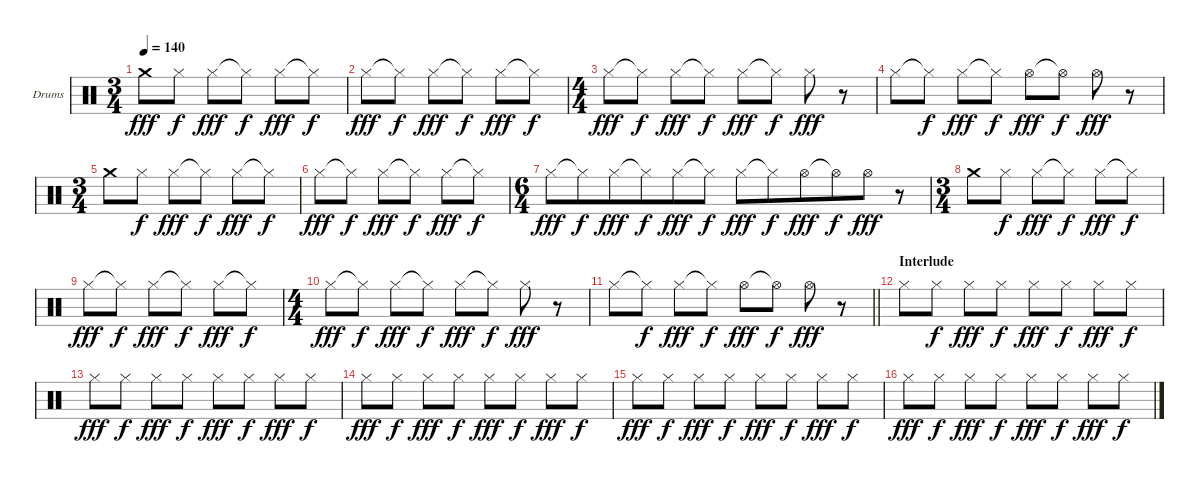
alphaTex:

\bracketExtendMode groupsimilarinstruments
\firstSystemTrackNameOrientation horizontal
\otherSystemsTrackNameOrientation horizontal
\track ("Drumkit" "Drums") {instrument percussion}
\staff {score}
\articulation defaults
\ts (3 4)
\beaming (8 2 2 2 2)
\tempo 140
\clef neutral
\ks c "Crash medium (hit)".8{dy fff} "Hi-Hat (closed)".8{dy f} "Hi-Hat (closed)".8{dy fff} "Hi-Hat (closed)"{t}.8{dy f} "Hi-Hat (closed)".8{dy fff} "Hi-Hat (closed)"{t}.8{dy f}
|
"Hi-Hat (closed)".8{dy fff} "Hi-Hat (closed)"{t}.8{dy f} "Hi-Hat (closed)".8{dy fff} "Hi-Hat (closed)"{t}.8{dy f} "Hi-Hat (closed)".8{dy fff} "Hi-Hat (closed)"{t}.8{dy f} |
\ts (4 4)
\beaming (8 2 2 2 2)
"Hi-Hat (closed)".8{dy fff} "Hi-Hat (closed)"{t}.8{dy f} "Hi-Hat (closed)".8{dy fff} "Hi-Hat (closed)"{t}.8{dy f} "Hi-Hat (closed)".8{dy fff} "Hi-Hat (closed)"{t}.8{dy f} "Hi-Hat (closed)".8{dy fff} r.8 |
"Hi-Hat (closed)".8 "Hi-Hat (closed)"{t}.8{dy f} "Hi-Hat (closed)".8{dy fff} "Hi-Hat (closed)"{t}.8{dy f} "Hi-Hat (open)".8{dy fff} "Hi-Hat (open)"{t}.8{dy f} "Hi-Hat (open)".8{dy fff} r.8 |
\ts (3 4)
\beaming (8 2 2 2 2)
"Crash medium (hit)".8 "Hi-Hat (closed)".8{dy f} "Hi-Hat (closed)".8{dy fff} "Hi-Hat (closed)"{t}.8{dy f} "Hi-Hat (closed)".8{dy fff} "Hi-Hat (closed)"{t}.8{dy f} |
\beaming (8 2 2 2)
"Hi-Hat (closed)".8{dy fff} "Hi-Hat (closed)"{t}.8{dy f} "Hi-Hat (closed)".8{dy fff} "Hi-Hat (closed)"{t}.8{dy f} "Hi-Hat (closed)".8{dy fff} "Hi-Hat (closed)"{t}.8{dy f} |
\ts (6 4)
\beaming (8 6 6)
"Hi-Hat (closed)".8{dy fff} "Hi-Hat (closed)"{t}.8{dy f} "Hi-Hat (closed)".8{dy fff} "Hi-Hat (closed)"{t}.8{dy f} "Hi-Hat (closed)".8{dy fff} "Hi-Hat (closed)"{t}.8{dy f} "Hi-Hat (closed)".8{dy fff} "Hi-Hat (closed)"{t}.8{dy f} "Hi-Hat (open)".8{dy fff} "Hi-Hat (open)"{t}.8{dy f} "Hi-Hat (open)".8{dy fff} r.8 |
\ts (3 4)
\beaming (8 2 2 2)
"Crash medium (hit)".8 "Hi-Hat (closed)".8{dy f} "Hi-Hat (closed)".8{dy fff} "Hi-Hat (closed)"{t}.8{dy f} "Hi-Hat (closed)".8{dy fff} "Hi-Hat (closed)"{t}.8{dy f} |
"Hi-Hat (closed)".8{dy fff} "Hi-Hat (closed)"{t}.8{dy f} "Hi-Hat (closed)".8{dy fff} "Hi-Hat (closed)"{t}.8{dy f} "Hi-Hat (closed)".8{dy fff} "Hi-Hat (closed)"{t}.8{dy f} |
\ts (4 4)
\beaming (8 2 2 2 2)
"Hi-Hat (closed)".8{dy fff} "Hi-Hat (closed)"{t}.8{dy f} "Hi-Hat (closed)".8{dy fff} "Hi-Hat (closed)"{t}.8{dy f} "Hi-Hat (closed)".8{dy fff} "Hi-Hat (closed)"{t}.8{dy f} "Hi-Hat (closed)".8{dy fff} r.8 |
\barLineRight lightlight "Hi-Hat (closed)".8 "Hi-Hat (closed)"{t}.8{dy f} "Hi-Hat (closed)".8{dy fff} "Hi-Hat (closed)"{t}.8{dy f} "Hi-Hat (open)".8{dy fff} "Hi-Hat (open)"{t}.8{dy f} "Hi-Hat (open)".8{dy fff}
r.8 |
\section ("" "Interlude")
"Hi-Hat (closed)".8 "Hi-Hat (closed)".8{dy f} "Hi-Hat (closed)".8{dy fff} "Hi-Hat (closed)".8{dy f} "Hi-Hat (closed)".8{dy fff} "Hi-Hat (closed)".8{dy f} "Hi-Hat (closed)".8{dy fff} "Hi-Hat (closed)".8{dy f} |
"Hi-Hat (closed)".8{dy fff} "Hi-Hat (closed)".8{dy f} "Hi-Hat (closed)".8{dy fff} "Hi-Hat (closed)".8{dy f} "Hi-Hat (closed)".8{dy fff} "Hi-Hat (closed)".8{dy f} "Hi-Hat (closed)".8{dy fff} "Hi-Hat (closed)".8{dy f} |
"Hi-Hat (closed)".8{dy fff} "Hi-Hat (closed)".8{dy f} "Hi-Hat (closed)".8{dy fff} "Hi-Hat (closed)".8{dy f} "Hi-Hat (closed)".8{dy fff} "Hi-Hat (closed)".8{dy f} "Hi-Hat (closed)".8{dy fff} "Hi-Hat (closed)".8{dy f} |
"Hi-Hat (closed)".8{dy fff} "Hi-Hat (closed)".8{dy f} "Hi-Hat (closed)".8{dy fff} "Hi-Hat (closed)".8{dy f} "Hi-Hat (closed)".8{dy fff} "Hi-Hat (closed)".8{dy f} "Hi-Hat (closed)".8{dy fff} "Hi-Hat (closed)".8{dy f} |
"Hi-Hat (closed)".8{dy fff} "Hi-Hat (closed)".8{dy f} "Hi-Hat (closed)".8{dy fff} "Hi-Hat (closed)".8{dy f} "Hi-Hat (closed)".8{dy fff} "Hi-Hat (closed)".8{dy f} "Hi-Hat (closed)".8{dy fff} "Hi-Hat (closed)".8{dy f}
